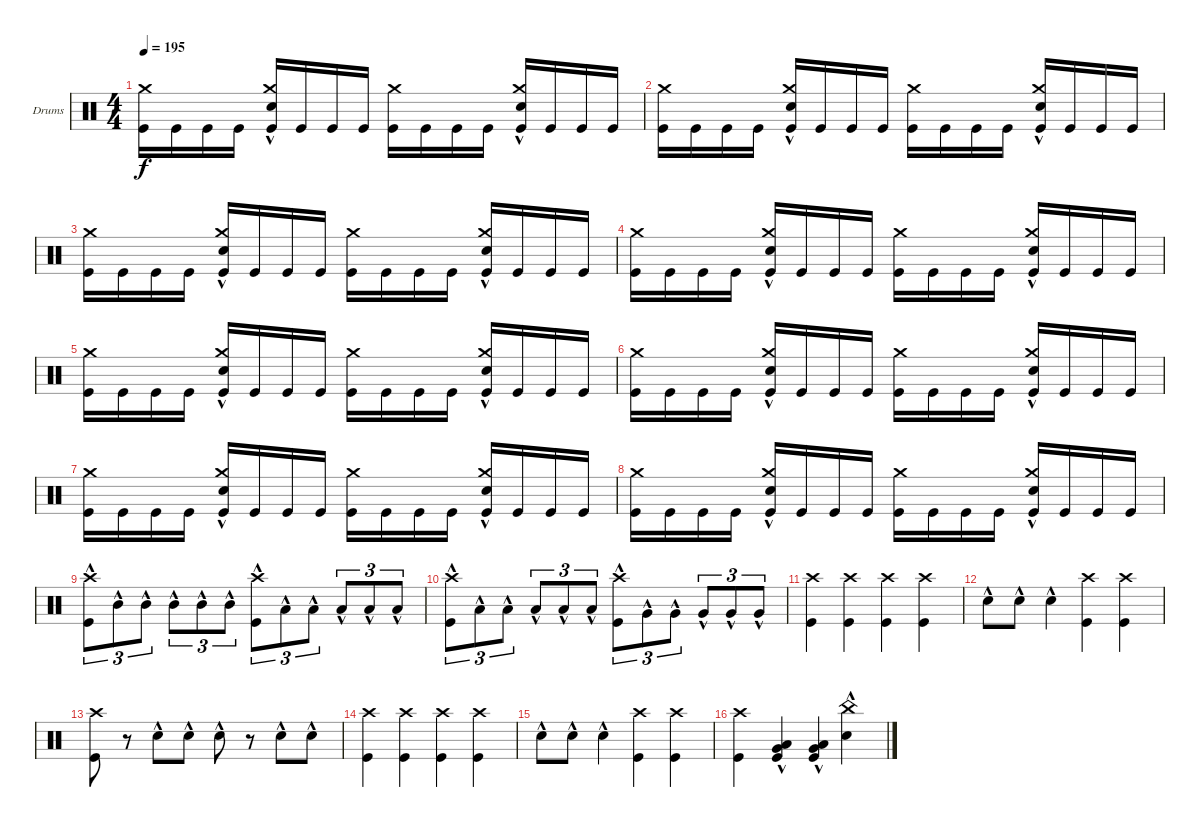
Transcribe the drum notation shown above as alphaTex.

\defaultSystemsLayout 4
\bracketExtendMode groupsimilarinstruments
\firstSystemTrackNameOrientation horizontal
\otherSystemsTrackNameOrientation horizontal
\track ("Drumkit" "Drums") {instrument percussion}
\staff {score}
\articulation defaults
\ts (4 4)
\tempo 195
\clef neutral
\ks c
("Kick (hit)" "Crash medium (hit)").16{dy f} "Kick (hit)".16 "Kick (hit)".16 "Kick (hit)".16 ("Kick (hit)" "Crash medium (hit)" "Snare (hit) 2"{hac}).16 "Kick (hit)".16 "Kick (hit)".16 "Kick (hit)".16 ("Kick (hit)" "Crash medium (hit)").16 "Kick (hit)".16 "Kick (hit)".16 "Kick (hit)".16 ("Kick (hit)" "Crash medium (hit)" "Snare (hit) 2"{hac}).16 "Kick (hit)".16 "Kick (hit)".16 "Kick (hit)".16 |
("Kick (hit)" "Crash medium (hit)").16 "Kick (hit)".16 "Kick (hit)".16 "Kick (hit)".16 ("Kick (hit)" "Crash medium (hit)" "Snare (hit) 2"{hac}).16 "Kick (hit)".16 "Kick (hit)".16 "Kick (hit)".16 ("Kick (hit)" "Crash medium (hit)").16 "Kick (hit)".16 "Kick (hit)".16 "Kick (hit)".16 ("Kick (hit)" "Crash medium (hit)" "Snare (hit) 2"{hac}).16 "Kick (hit)".16 "Kick (hit)".16 "Kick (hit)".16 |
("Kick (hit)" "Crash medium (hit)").16 "Kick (hit)".16 "Kick (hit)".16 "Kick (hit)".16 ("Kick (hit)" "Crash medium (hit)" "Snare (hit) 2"{hac}).16 "Kick (hit)".16 "Kick (hit)".16 "Kick (hit)".16 ("Kick (hit)" "Crash medium (hit)").16 "Kick (hit)".16 "Kick (hit)".16 "Kick (hit)".16 ("Kick (hit)" "Crash medium (hit)" "Snare (hit) 2"{hac}).16 "Kick (hit)".16 "Kick (hit)".16 "Kick (hit)".16 |
("Kick (hit)" "Crash medium (hit)").16 "Kick (hit)".16 "Kick (hit)".16 "Kick (hit)".16 ("Kick (hit)" "Crash medium (hit)" "Snare (hit) 2"{hac}).16 "Kick (hit)".16 "Kick (hit)".16 "Kick (hit)".16 ("Kick (hit)" "Crash medium (hit)").16 "Kick (hit)".16 "Kick (hit)".16 "Kick (hit)".16 ("Kick (hit)" "Crash medium (hit)" "Snare (hit) 2"{hac}).16 "Kick (hit)".16 "Kick (hit)".16 "Kick (hit)".16 |
("Kick (hit)" "Crash medium (hit)").16 "Kick (hit)".16 "Kick (hit)".16 "Kick (hit)".16 ("Kick (hit)" "Crash medium (hit)" "Snare (hit) 2"{hac}).16 "Kick (hit)".16 "Kick (hit)".16 "Kick (hit)".16 ("Kick (hit)" "Crash medium (hit)").16 "Kick (hit)".16 "Kick (hit)".16 "Kick (hit)".16 ("Kick (hit)" "Crash medium (hit)" "Snare (hit) 2"{hac}).16 "Kick (hit)".16 "Kick (hit)".16 "Kick (hit)".16 |
("Kick (hit)" "Crash medium (hit)").16 "Kick (hit)".16 "Kick (hit)".16 "Kick (hit)".16 ("Kick (hit)" "Crash medium (hit)" "Snare (hit) 2"{hac}).16 "Kick (hit)".16 "Kick (hit)".16 "Kick (hit)".16 ("Kick (hit)" "Crash medium (hit)").16 "Kick (hit)".16 "Kick (hit)".16 "Kick (hit)".16 ("Kick (hit)" "Crash medium (hit)" "Snare (hit) 2"{hac}).16 "Kick (hit)".16 "Kick (hit)".16 "Kick (hit)".16 |
("Kick (hit)" "Crash medium (hit)").16 "Kick (hit)".16 "Kick (hit)".16 "Kick (hit)".16 ("Kick (hit)" "Crash medium (hit)" "Snare (hit) 2"{hac}).16 "Kick (hit)".16 "Kick (hit)".16 "Kick (hit)".16 ("Kick (hit)" "Crash medium (hit)").16 "Kick (hit)".16 "Kick (hit)".16 "Kick (hit)".16 ("Kick (hit)" "Crash medium (hit)" "Snare (hit) 2"{hac}).16 "Kick (hit)".16 "Kick (hit)".16 "Kick (hit)".16 |
("Kick (hit)" "Crash medium (hit)").16 "Kick (hit)".16 "Kick (hit)".16 "Kick (hit)".16 ("Kick (hit)" "Crash medium (hit)" "Snare (hit) 2"{hac}).16 "Kick (hit)".16 "Kick (hit)".16 "Kick (hit)".16 ("Kick (hit)" "Crash medium (hit)").16 "Kick (hit)".16 "Kick (hit)".16 "Kick (hit)".16 ("Kick (hit)" "Crash medium (hit)" "Snare (hit) 2"{hac}).16 "Kick (hit)".16 "Kick (hit)".16 "Kick (hit)".16 |
("Kick (hit)"{hac} "Crash high (hit)"{hac}).8{tu (3 2)} "Mid Tom (hit)"{hac}.8{tu (3 2)} "Mid Tom (hit)"{hac}.8{tu (3 2)} "Mid Tom (hit)"{hac}.8{tu (3 2)} "Mid Tom (hit)"{hac}.8{tu (3 2)} "Mid Tom (hit)"{hac}.8{tu (3 2)} ("Kick (hit)"{hac} "Crash high (hit)"{hac}).8{tu (3 2)} "Low Tom (hit)"{hac}.8{tu (3 2)} "Low Tom (hit)"{hac}.8{tu (3 2)} "Low Tom (hit)"{hac}.8{tu (3 2)} "Low Tom (hit)"{hac}.8{tu (3 2)} "Low Tom (hit)"{hac}.8{tu (3 2)} |
("Kick (hit)"{hac} "Crash high (hit)"{hac}).8{tu (3 2)} "Low Tom (hit)"{hac}.8{tu (3 2)} "Low Tom (hit)"{hac}.8{tu (3 2)} "Low Tom (hit)"{hac}.8{tu (3 2)} "Low Tom (hit)"{hac}.8{tu (3 2)} "Low Tom (hit)"{hac}.8{tu (3 2)} ("Kick (hit)"{hac} "Crash high (hit)"{hac}).8{tu (3 2)} "Very Low Tom (hit)"{hac}.8{tu (3 2)} "Very Low Tom (hit)"{hac}.8{tu (3 2)} "Very Low Tom (hit)"{hac}.8{tu (3 2)} "Very Low Tom (hit)"{hac}.8{tu (3 2)} "Very Low Tom (hit)"{hac}.8{tu (3 2)} |
("Kick (hit)" "Crash high (hit)").4 ("Kick (hit)" "Crash high (hit)").4 ("Kick (hit)" "Crash high (hit)").4 ("Kick (hit)" "Crash high (hit)").4 |
"Snare (hit) 2"{hac}.8 "Snare (hit) 2"{hac}.8 "Snare (hit) 2"{hac}.4 ("Kick (hit)" "Crash high (hit)").4 ("Kick (hit)" "Crash high (hit)").4 |
("Kick (hit)" "Crash high (hit)").8 r.8 "Snare (hit) 2"{hac}.8 "Snare (hit) 2"{hac}.8 "Snare (hit) 2"{hac}.8 r.8 "Snare (hit) 2"{hac}.8 "Snare (hit) 2"{hac}.8 |
("Kick (hit)" "Crash high (hit)").4 ("Kick (hit)" "Crash high (hit)").4 ("Kick (hit)" "Crash high (hit)").4 ("Kick (hit)" "Crash high (hit)").4 |
"Snare (hit) 2"{hac}.8 "Snare (hit) 2"{hac}.8 "Snare (hit) 2"{hac}.4 ("Kick (hit)" "Crash high (hit)").4 ("Kick (hit)" "Crash high (hit)").4 |
("Kick (hit)" "Crash high (hit)").4 ("Low Tom (hit)"{hac} "Very Low Tom (hit)"{hac} "Kick (hit)").4 ("Low Tom (hit)"{hac} "Very Low Tom (hit)"{hac} "Kick (hit)").4 ("Snare (hit) 2"{hac} "China (hit)"{hac}).4
